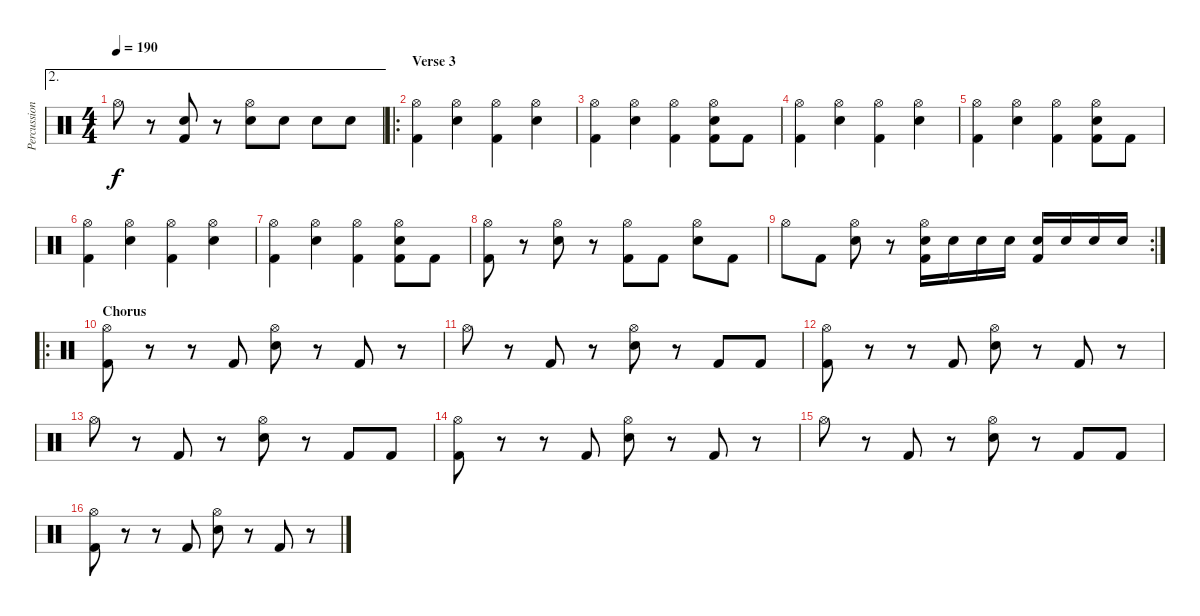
\track ("Percussion" "Percussion") {instrument percussion}
\staff {score}
\articulation defaults
\ae 2
\ts (4 4)
\tempo 190
\clef neutral
\ks c "Hi-Hat (open)".8{dy f}
r.8 ("Electric Snare (hit)" "Kick (hit) 2").8 r.8 ("Hi-Hat (open)" "Electric Snare (hit)").8 "Electric Snare (hit)".8 "Electric Snare (hit)".8 "Electric Snare (hit)".8 |
\ro
\section ("" "Verse 3")
("Hi-Hat (open)" "Kick (hit) 2").4 ("Hi-Hat (open)" "Electric Snare (hit)").4 ("Hi-Hat (open)" "Kick (hit) 2").4 ("Hi-Hat (open)" "Electric Snare (hit)").4 |
("Hi-Hat (open)" "Kick (hit) 2").4 ("Hi-Hat (open)" "Electric Snare (hit)").4 ("Hi-Hat (open)" "Kick (hit) 2").4 ("Hi-Hat (open)" "Electric Snare (hit)" "Kick (hit) 2").8 "Kick (hit) 2".8 |
("Hi-Hat (open)" "Kick (hit) 2").4 ("Hi-Hat (open)" "Electric Snare (hit)").4 ("Hi-Hat (open)" "Kick (hit) 2").4 ("Hi-Hat (open)" "Electric Snare (hit)").4 |
("Hi-Hat (open)" "Kick (hit) 2").4 ("Hi-Hat (open)" "Electric Snare (hit)").4 ("Hi-Hat (open)" "Kick (hit) 2").4 ("Hi-Hat (open)" "Electric Snare (hit)" "Kick (hit) 2").8 "Kick (hit) 2".8 |
("Hi-Hat (open)" "Kick (hit) 2").4 ("Hi-Hat (open)" "Electric Snare (hit)").4 ("Hi-Hat (open)" "Kick (hit) 2").4 ("Hi-Hat (open)" "Electric Snare (hit)").4 |
("Hi-Hat (open)" "Kick (hit) 2").4 ("Hi-Hat (open)" "Electric Snare (hit)").4 ("Hi-Hat (open)" "Kick (hit) 2").4 ("Hi-Hat (open)" "Electric Snare (hit)" "Kick (hit) 2").8 "Kick (hit) 2".8 |
("Hi-Hat (open)" "Kick (hit) 2").8 r.8 ("Hi-Hat (open)" "Electric Snare (hit)").8 r.8 ("Hi-Hat (open)" "Kick (hit) 2").8 "Kick (hit) 2".8 ("Hi-Hat (open)" "Electric Snare (hit)").8 "Kick (hit) 2".8 |
\rc 2 "Hi-Hat (open)".8 "Kick (hit) 2".8
("Hi-Hat (open)" "Electric Snare (hit)").8 r.8 ("Hi-Hat (open)" "Electric Snare (hit)" "Kick (hit) 2").16 "Electric Snare (hit)".16 "Electric Snare (hit)".16 "Electric Snare (hit)".16 ("Electric Snare (hit)" "Kick (hit) 2").16 "Electric Snare (hit)".16 "Electric Snare (hit)".16 "Electric Snare (hit)".16 |
\ro
\section ("" "Chorus")
("Hi-Hat (open)" "Kick (hit) 2").8 r.8 r.8 "Kick (hit) 2".8 ("Hi-Hat (open)" "Electric Snare (hit)").8 r.8 "Kick (hit) 2".8 r.8 |
"Hi-Hat (open)".8 r.8 "Kick (hit) 2".8 r.8 ("Hi-Hat (open)" "Electric Snare (hit)").8 r.8 "Kick (hit) 2".8 "Kick (hit) 2".8 |
("Hi-Hat (open)" "Kick (hit) 2").8 r.8 r.8 "Kick (hit) 2".8 ("Hi-Hat (open)" "Electric Snare (hit)").8 r.8 "Kick (hit) 2".8 r.8 |
"Hi-Hat (open)".8 r.8 "Kick (hit) 2".8 r.8 ("Hi-Hat (open)" "Electric Snare (hit)").8 r.8 "Kick (hit) 2".8 "Kick (hit) 2".8 |
("Hi-Hat (open)" "Kick (hit) 2").8 r.8 r.8 "Kick (hit) 2".8 ("Hi-Hat (open)" "Electric Snare (hit)").8 r.8 "Kick (hit) 2".8 r.8 |
"Hi-Hat (open)".8 r.8 "Kick (hit) 2".8 r.8 ("Hi-Hat (open)" "Electric Snare (hit)").8 r.8 "Kick (hit) 2".8 "Kick (hit) 2".8 |
("Hi-Hat (open)" "Kick (hit) 2").8 r.8 r.8 "Kick (hit) 2".8 ("Hi-Hat (open)" "Electric Snare (hit)").8 r.8 "Kick (hit) 2".8 r.8
